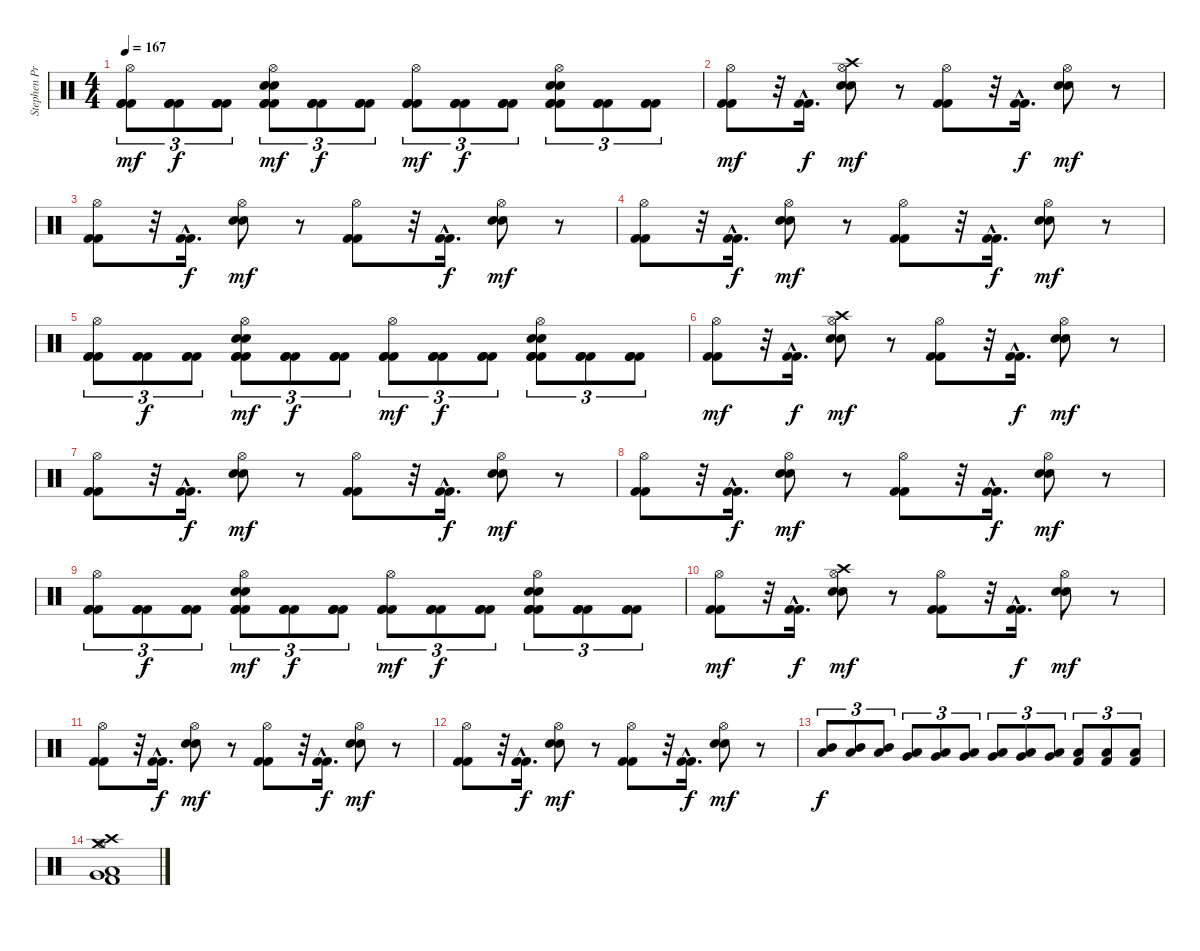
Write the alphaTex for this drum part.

\track ("Stephen Priestly  (Drums)" "Stephen Pr") {instrument percussion}
\staff {score}
\articulation defaults
\ts (4 4)
\tempo 167
\clef neutral
\ks c
("Hi-Hat (open)" "Kick (hit) 2" "Kick (hit) 2" "Kick (hit) 2").8{tu (3 2) dy mf} ("Kick (hit) 2" "Kick (hit) 2" "Kick (hit) 2").8{tu (3 2) dy f} ("Kick (hit) 2" "Kick (hit) 2" "Kick (hit) 2").8{tu (3 2)} ("Electric Snare (hit)" "Hi-Hat (open)" "Electric Snare (hit)" "Kick (hit) 2" "Kick (hit) 2" "Kick (hit) 2").8{tu (3 2) dy mf} ("Kick (hit) 2" "Kick (hit) 2" "Kick (hit) 2").8{tu (3 2) dy f} ("Kick (hit) 2" "Kick (hit) 2" "Kick (hit) 2").8{tu (3 2)} ("Hi-Hat (open)" "Kick (hit) 2" "Kick (hit) 2" "Kick (hit) 2").8{tu (3 2) dy mf} ("Kick (hit) 2" "Kick (hit) 2" "Kick (hit) 2").8{tu (3 2) dy f} ("Kick (hit) 2" "Kick (hit) 2" "Kick (hit) 2").8{tu (3 2)} ("Electric Snare (hit)" "Hi-Hat (open)" "Electric Snare (hit)" "Kick (hit) 2" "Kick (hit) 2" "Kick (hit) 2").8{tu (3 2)} ("Kick (hit) 2" "Kick (hit) 2" "Kick (hit) 2").8{tu (3 2)} ("Kick (hit) 2" "Kick (hit) 2" "Kick (hit) 2").8{tu (3 2)} |
("Hi-Hat (open)" "Kick (hit) 2" "Kick (hit) 2").8{dy mf} r.32 ("Kick (hit) 2"{hac} "Kick (hit) 2"{hac}).16{d dy f} ("Crash high (hit)" "Hi-Hat (open)" "Electric Snare (hit)" "Electric Snare (hit)").8{dy mf} r.8 ("Hi-Hat (open)" "Kick (hit) 2" "Kick (hit) 2").8 r.32 ("Kick (hit) 2"{hac} "Kick (hit) 2"{hac}).16{d dy f} ("Hi-Hat (open)" "Electric Snare (hit)" "Electric Snare (hit)").8{dy mf} r.8 |
("Hi-Hat (open)" "Kick (hit) 2" "Kick (hit) 2").8 r.32 ("Kick (hit) 2"{hac} "Kick (hit) 2"{hac}).16{d dy f} ("Hi-Hat (open)" "Electric Snare (hit)" "Electric Snare (hit)").8{dy mf} r.8 ("Hi-Hat (open)" "Kick (hit) 2" "Kick (hit) 2").8 r.32 ("Kick (hit) 2"{hac} "Kick (hit) 2"{hac}).16{d dy f} ("Hi-Hat (open)" "Electric Snare (hit)" "Electric Snare (hit)").8{dy mf} r.8 |
("Hi-Hat (open)" "Kick (hit) 2" "Kick (hit) 2").8 r.32 ("Kick (hit) 2"{hac} "Kick (hit) 2"{hac}).16{d dy f} ("Hi-Hat (open)" "Electric Snare (hit)" "Electric Snare (hit)").8{dy mf} r.8 ("Hi-Hat (open)" "Kick (hit) 2" "Kick (hit) 2").8 r.32 ("Kick (hit) 2"{hac} "Kick (hit) 2"{hac}).16{d dy f} ("Hi-Hat (open)" "Electric Snare (hit)" "Electric Snare (hit)").8{dy mf} r.8 |
("Hi-Hat (open)" "Kick (hit) 2" "Kick (hit) 2" "Kick (hit) 2").8{tu (3 2)} ("Kick (hit) 2" "Kick (hit) 2" "Kick (hit) 2").8{tu (3 2) dy f} ("Kick (hit) 2" "Kick (hit) 2" "Kick (hit) 2").8{tu (3 2)} ("Electric Snare (hit)" "Hi-Hat (open)" "Electric Snare (hit)" "Kick (hit) 2" "Kick (hit) 2" "Kick (hit) 2").8{tu (3 2) dy mf} ("Kick (hit) 2" "Kick (hit) 2" "Kick (hit) 2").8{tu (3 2) dy f} ("Kick (hit) 2" "Kick (hit) 2" "Kick (hit) 2").8{tu (3 2)} ("Hi-Hat (open)" "Kick (hit) 2" "Kick (hit) 2" "Kick (hit) 2").8{tu (3 2) dy mf} ("Kick (hit) 2" "Kick (hit) 2" "Kick (hit) 2").8{tu (3 2) dy f} ("Kick (hit) 2" "Kick (hit) 2" "Kick (hit) 2").8{tu (3 2)} ("Electric Snare (hit)" "Hi-Hat (open)" "Electric Snare (hit)" "Kick (hit) 2" "Kick (hit) 2" "Kick (hit) 2").8{tu (3 2)} ("Kick (hit) 2" "Kick (hit) 2" "Kick (hit) 2").8{tu (3 2)} ("Kick (hit) 2" "Kick (hit) 2" "Kick (hit) 2").8{tu (3 2)} |
("Hi-Hat (open)" "Kick (hit) 2" "Kick (hit) 2").8{dy mf} r.32 ("Kick (hit) 2"{hac} "Kick (hit) 2"{hac}).16{d dy f} ("Crash high (hit)" "Hi-Hat (open)" "Electric Snare (hit)" "Electric Snare (hit)").8{dy mf} r.8 ("Hi-Hat (open)" "Kick (hit) 2" "Kick (hit) 2").8 r.32 ("Kick (hit) 2"{hac} "Kick (hit) 2"{hac}).16{d dy f} ("Hi-Hat (open)" "Electric Snare (hit)" "Electric Snare (hit)").8{dy mf} r.8 |
("Hi-Hat (open)" "Kick (hit) 2" "Kick (hit) 2").8 r.32 ("Kick (hit) 2"{hac} "Kick (hit) 2"{hac}).16{d dy f} ("Hi-Hat (open)" "Electric Snare (hit)" "Electric Snare (hit)").8{dy mf} r.8 ("Hi-Hat (open)" "Kick (hit) 2" "Kick (hit) 2").8 r.32 ("Kick (hit) 2"{hac} "Kick (hit) 2"{hac}).16{d dy f} ("Hi-Hat (open)" "Electric Snare (hit)" "Electric Snare (hit)").8{dy mf} r.8 |
("Hi-Hat (open)" "Kick (hit) 2" "Kick (hit) 2").8 r.32 ("Kick (hit) 2"{hac} "Kick (hit) 2"{hac}).16{d dy f} ("Hi-Hat (open)" "Electric Snare (hit)" "Electric Snare (hit)").8{dy mf} r.8 ("Hi-Hat (open)" "Kick (hit) 2" "Kick (hit) 2").8 r.32 ("Kick (hit) 2"{hac} "Kick (hit) 2"{hac}).16{d dy f} ("Hi-Hat (open)" "Electric Snare (hit)" "Electric Snare (hit)").8{dy mf} r.8 |
("Hi-Hat (open)" "Kick (hit) 2" "Kick (hit) 2" "Kick (hit) 2").8{tu (3 2)} ("Kick (hit) 2" "Kick (hit) 2" "Kick (hit) 2").8{tu (3 2) dy f} ("Kick (hit) 2" "Kick (hit) 2" "Kick (hit) 2").8{tu (3 2)} ("Electric Snare (hit)" "Hi-Hat (open)" "Electric Snare (hit)" "Kick (hit) 2" "Kick (hit) 2" "Kick (hit) 2").8{tu (3 2) dy mf} ("Kick (hit) 2" "Kick (hit) 2" "Kick (hit) 2").8{tu (3 2) dy f} ("Kick (hit) 2" "Kick (hit) 2" "Kick (hit) 2").8{tu (3 2)} ("Hi-Hat (open)" "Kick (hit) 2" "Kick (hit) 2" "Kick (hit) 2").8{tu (3 2) dy mf} ("Kick (hit) 2" "Kick (hit) 2" "Kick (hit) 2").8{tu (3 2) dy f} ("Kick (hit) 2" "Kick (hit) 2" "Kick (hit) 2").8{tu (3 2)} ("Electric Snare (hit)" "Hi-Hat (open)" "Electric Snare (hit)" "Kick (hit) 2" "Kick (hit) 2" "Kick (hit) 2").8{tu (3 2)} ("Kick (hit) 2" "Kick (hit) 2" "Kick (hit) 2").8{tu (3 2)} ("Kick (hit) 2" "Kick (hit) 2" "Kick (hit) 2").8{tu (3 2)} |
("Hi-Hat (open)" "Kick (hit) 2" "Kick (hit) 2").8{dy mf} r.32 ("Kick (hit) 2"{hac} "Kick (hit) 2"{hac}).16{d dy f} ("Crash high (hit)" "Hi-Hat (open)" "Electric Snare (hit)" "Electric Snare (hit)").8{dy mf} r.8 ("Hi-Hat (open)" "Kick (hit) 2" "Kick (hit) 2").8 r.32 ("Kick (hit) 2"{hac} "Kick (hit) 2"{hac}).16{d dy f} ("Hi-Hat (open)" "Electric Snare (hit)" "Electric Snare (hit)").8{dy mf} r.8 |
("Hi-Hat (open)" "Kick (hit) 2" "Kick (hit) 2").8 r.32 ("Kick (hit) 2"{hac} "Kick (hit) 2"{hac}).16{d dy f} ("Hi-Hat (open)" "Electric Snare (hit)" "Electric Snare (hit)").8{dy mf} r.8 ("Hi-Hat (open)" "Kick (hit) 2" "Kick (hit) 2").8 r.32 ("Kick (hit) 2"{hac} "Kick (hit) 2"{hac}).16{d dy f} ("Hi-Hat (open)" "Electric Snare (hit)" "Electric Snare (hit)").8{dy mf} r.8 |
("Hi-Hat (open)" "Kick (hit) 2" "Kick (hit) 2").8 r.32 ("Kick (hit) 2"{hac} "Kick (hit) 2"{hac}).16{d dy f} ("Hi-Hat (open)" "Electric Snare (hit)" "Electric Snare (hit)").8{dy mf} r.8 ("Hi-Hat (open)" "Kick (hit) 2" "Kick (hit) 2").8 r.32 ("Kick (hit) 2"{hac} "Kick (hit) 2"{hac}).16{d dy f} ("Hi-Hat (open)" "Electric Snare (hit)" "Electric Snare (hit)").8{dy mf} r.8 |
("Mid Tom (hit)" "Low Tom (hit)").8{tu (3 2) dy f} ("Mid Tom (hit)" "Low Tom (hit)").8{tu (3 2)} ("Mid Tom (hit)" "Low Tom (hit)").8{tu (3 2)} ("Low Tom (hit)" "Very Low Tom (hit)").8{tu (3 2)} ("Low Tom (hit)" "Very Low Tom (hit)").8{tu (3 2)} ("Low Tom (hit)" "Very Low Tom (hit)").8{tu (3 2)} ("Very Low Tom (hit)" "Low Floor Tom (hit)").8{tu (3 2)} ("Very Low Tom (hit)" "Low Floor Tom (hit)").8{tu (3 2)} ("Very Low Tom (hit)" "Low Floor Tom (hit)").8{tu (3 2)} ("Low Floor Tom (hit)" "Kick (hit) 2").8{tu (3 2)} ("Low Floor Tom (hit)" "Kick (hit) 2").8{tu (3 2)} ("Low Floor Tom (hit)" "Kick (hit) 2").8{tu (3 2)} |
("Hi-Hat (open)" "Very Low Tom (hit)" "Low Floor Tom (hit)" "Crash medium (hit)" "Kick (hit) 2" "Crash high (hit)").1
